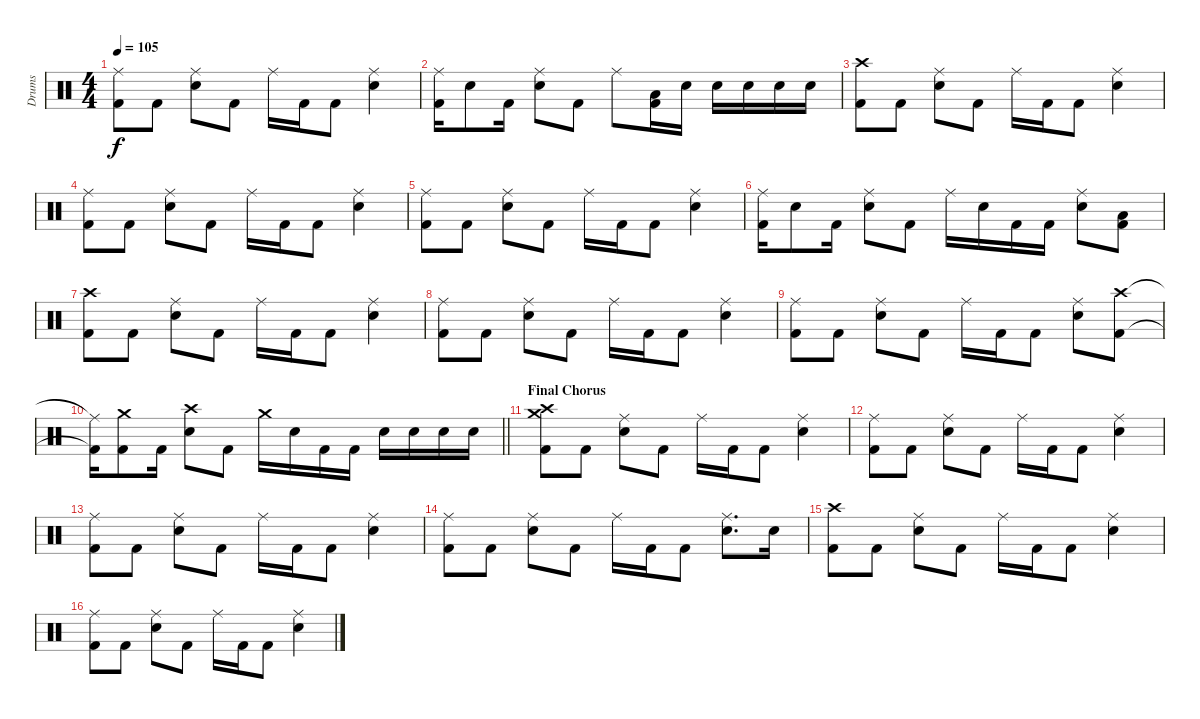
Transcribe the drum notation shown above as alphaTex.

\track ("Drums" "Drums") {instrument percussion}
\staff {score}
\articulation defaults
\ts (4 4)
\tempo 105
\clef neutral
\ks c
("Ride (middle)" "Kick (hit) 2").8{dy f} "Kick (hit) 2".8 ("Ride (middle)" "Electric Snare (hit)").8 "Kick (hit) 2".8 "Ride (middle)".16 "Kick (hit) 2".16 "Kick (hit) 2".8 ("Ride (middle)" "Electric Snare (hit)").4 |
("Ride (middle)" "Kick (hit) 2").16 "Electric Snare (hit)".8 "Kick (hit) 2".16 ("Ride (middle)" "Electric Snare (hit)").8 "Kick (hit) 2".8 "Ride (middle)".8 ("Low Floor Tom (hit)" "Kick (hit) 2").16 "Electric Snare (hit)".16 "Electric Snare (hit)".16 "Electric Snare (hit)".16 "Electric Snare (hit)".16 "Electric Snare (hit)".16 |
("Crash high (hit)" "Kick (hit) 2").8 "Kick (hit) 2".8 ("Ride (middle)" "Electric Snare (hit)").8 "Kick (hit) 2".8 "Ride (middle)".16 "Kick (hit) 2".16 "Kick (hit) 2".8 ("Ride (middle)" "Electric Snare (hit)").4 |
("Ride (middle)" "Kick (hit) 2").8 "Kick (hit) 2".8 ("Ride (middle)" "Electric Snare (hit)").8 "Kick (hit) 2".8 "Ride (middle)".16 "Kick (hit) 2".16 "Kick (hit) 2".8 ("Ride (middle)" "Electric Snare (hit)").4 |
("Ride (middle)" "Kick (hit) 2").8 "Kick (hit) 2".8 ("Ride (middle)" "Electric Snare (hit)").8 "Kick (hit) 2".8 "Ride (middle)".16 "Kick (hit) 2".16 "Kick (hit) 2".8 ("Ride (middle)" "Electric Snare (hit)").4 |
("Ride (middle)" "Kick (hit) 2").16 "Electric Snare (hit)".8 "Kick (hit) 2".16 ("Ride (middle)" "Electric Snare (hit)").8 "Kick (hit) 2".8 "Ride (middle)".16 "Electric Snare (hit)".16 "Kick (hit) 2".16 "Kick (hit) 2".16 ("Ride (middle)" "Electric Snare (hit)").8 ("Low Tom (hit)" "Kick (hit) 2").8 |
("Crash high (hit)" "Kick (hit) 2").8 "Kick (hit) 2".8 ("Ride (middle)" "Electric Snare (hit)").8 "Kick (hit) 2".8 "Ride (middle)".16 "Kick (hit) 2".16 "Kick (hit) 2".8 ("Ride (middle)" "Electric Snare (hit)").4 |
("Ride (middle)" "Kick (hit) 2").8 "Kick (hit) 2".8 ("Ride (middle)" "Electric Snare (hit)").8 "Kick (hit) 2".8 "Ride (middle)".16 "Kick (hit) 2".16 "Kick (hit) 2".8 ("Ride (middle)" "Electric Snare (hit)").4 |
("Ride (middle)" "Kick (hit) 2").8 "Kick (hit) 2".8 ("Ride (middle)" "Electric Snare (hit)").8 "Kick (hit) 2".8 "Ride (middle)".16 "Kick (hit) 2".16 "Kick (hit) 2".8 ("Ride (middle)" "Electric Snare (hit)").8 ("Crash high (hit)" "Kick (hit) 2").8 |
\barLineRight lightlight
("Ride (middle)"{t} "Kick (hit) 2"{t}).16 ("Crash medium (hit)" "Kick (hit) 2").8 "Kick (hit) 2".16 ("Crash high (hit)" "Electric Snare (hit)").8 "Kick (hit) 2".8 "Crash medium (hit)".16 "Electric Snare (hit)".16 "Kick (hit) 2".16 "Kick (hit) 2".16 "Electric Snare (hit)".16 "Electric Snare (hit)".16 "Electric Snare (hit)".16 "Electric Snare (hit)".16 |
\section ("" "Final Chorus")
("Crash high (hit)" "Crash medium (hit)" "Kick (hit) 2").8 "Kick (hit) 2".8 ("Ride (middle)" "Electric Snare (hit)").8 "Kick (hit) 2".8 "Ride (middle)".16 "Kick (hit) 2".16 "Kick (hit) 2".8 ("Ride (middle)" "Electric Snare (hit)").4 |
("Ride (middle)" "Kick (hit) 2").8 "Kick (hit) 2".8 ("Ride (middle)" "Electric Snare (hit)").8 "Kick (hit) 2".8 "Ride (middle)".16 "Kick (hit) 2".16 "Kick (hit) 2".8 ("Ride (middle)" "Electric Snare (hit)").4 |
("Ride (middle)" "Kick (hit) 2").8 "Kick (hit) 2".8 ("Ride (middle)" "Electric Snare (hit)").8 "Kick (hit) 2".8 "Ride (middle)".16 "Kick (hit) 2".16 "Kick (hit) 2".8 ("Ride (middle)" "Electric Snare (hit)").4 |
("Ride (middle)" "Kick (hit) 2").8 "Kick (hit) 2".8 ("Ride (middle)" "Electric Snare (hit)").8 "Kick (hit) 2".8 "Ride (middle)".16 "Kick (hit) 2".16 "Kick (hit) 2".8 ("Ride (middle)" "Electric Snare (hit)").8{d} "Electric Snare (hit)".16 |
("Crash high (hit)" "Kick (hit) 2").8 "Kick (hit) 2".8 ("Ride (middle)" "Electric Snare (hit)").8 "Kick (hit) 2".8 "Ride (middle)".16 "Kick (hit) 2".16 "Kick (hit) 2".8 ("Ride (middle)" "Electric Snare (hit)").4 |
("Ride (middle)" "Kick (hit) 2").8 "Kick (hit) 2".8 ("Ride (middle)" "Electric Snare (hit)").8 "Kick (hit) 2".8 "Ride (middle)".16 "Kick (hit) 2".16 "Kick (hit) 2".8 ("Ride (middle)" "Electric Snare (hit)").4
